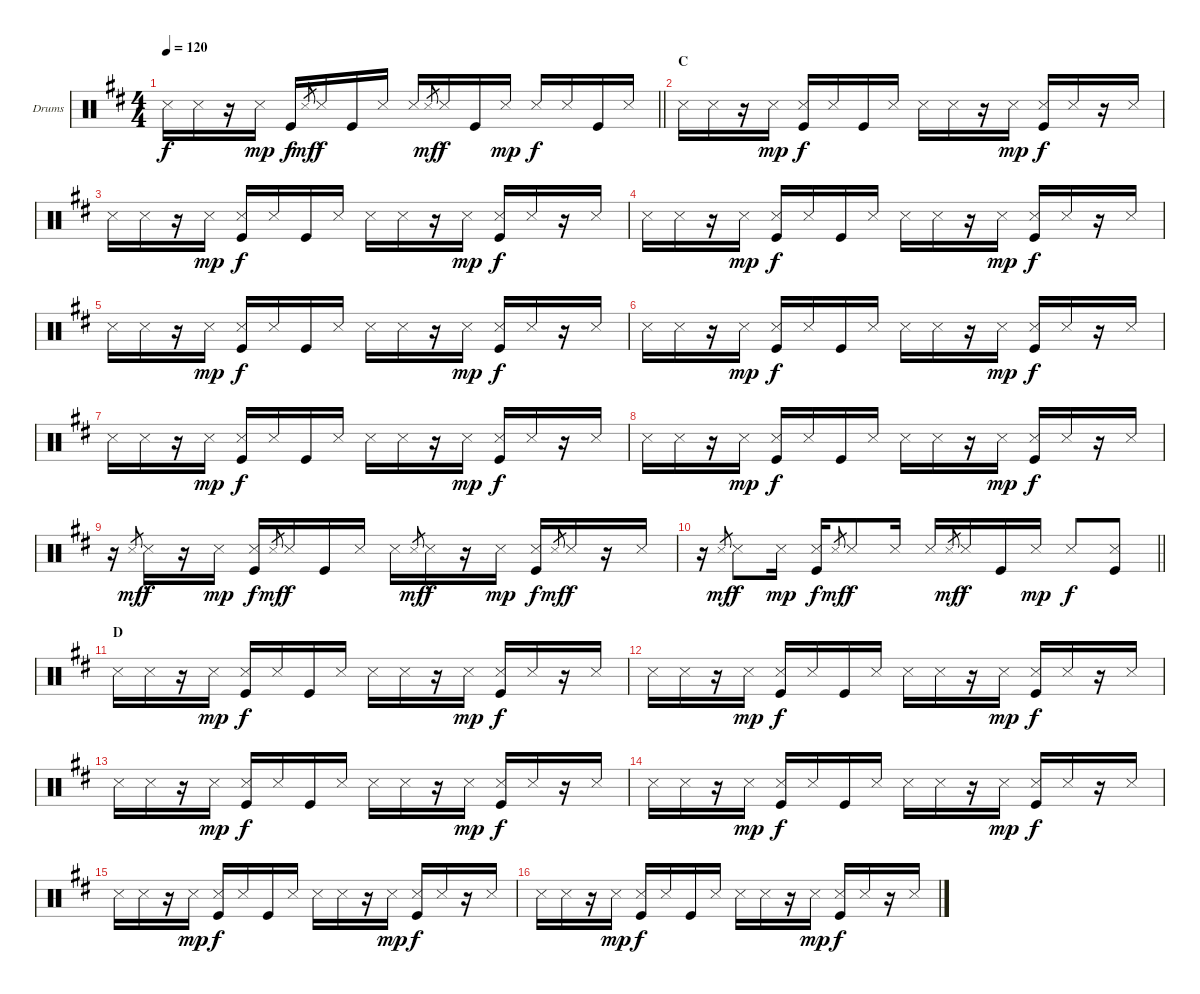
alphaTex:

\bracketExtendMode groupsimilarinstruments
\firstSystemTrackNameOrientation horizontal
\otherSystemsTrackNameOrientation horizontal
\track ("Drumkit" "Drums") {instrument percussion}
\staff {score}
\articulation defaults
\ts (4 4)
\tempo 120
\clef neutral
\barLineRight lightlight
\ks d "Snare (side stick) 3".16{dy f} "Snare (side stick) 3".16
r.16 "Snare (side stick) 3".16{dy mp} "Kick (hit)".16{dy f} "Snare (side stick) 3".8{gr dy mf} "Snare (side stick) 3".16{dy f} "Kick (hit)".16 "Snare (side stick) 3".16 "Snare (side stick) 3".16 "Snare (side stick) 3".8{gr dy mf} "Snare (side stick) 3".16{dy f} "Kick (hit)".16 "Snare (side stick) 3".16{dy mp} "Snare (side stick) 3".16{dy f} "Snare (side stick) 3".16 "Kick (hit)".16 "Snare (side stick) 3".16 |
\section ("" "C")
"Snare (side stick) 3".16 "Snare (side stick) 3".16 r.16 "Snare (side stick) 3".16{dy mp} ("Snare (side stick) 3" "Kick (hit)").16{dy f} "Snare (side stick) 3".16 "Kick (hit)".16 "Snare (side stick) 3".16 "Snare (side stick) 3".16 "Snare (side stick) 3".16 r.16 "Snare (side stick) 3".16{dy mp} ("Snare (side stick) 3" "Kick (hit)").16{dy f} "Snare (side stick) 3".16 r.16 "Snare (side stick) 3".16 |
"Snare (side stick) 3".16 "Snare (side stick) 3".16 r.16 "Snare (side stick) 3".16{dy mp} ("Snare (side stick) 3" "Kick (hit)").16{dy f} "Snare (side stick) 3".16 "Kick (hit)".16 "Snare (side stick) 3".16 "Snare (side stick) 3".16 "Snare (side stick) 3".16 r.16 "Snare (side stick) 3".16{dy mp} ("Snare (side stick) 3" "Kick (hit)").16{dy f} "Snare (side stick) 3".16 r.16 "Snare (side stick) 3".16 |
"Snare (side stick) 3".16 "Snare (side stick) 3".16 r.16 "Snare (side stick) 3".16{dy mp} ("Snare (side stick) 3" "Kick (hit)").16{dy f} "Snare (side stick) 3".16 "Kick (hit)".16 "Snare (side stick) 3".16 "Snare (side stick) 3".16 "Snare (side stick) 3".16 r.16 "Snare (side stick) 3".16{dy mp} ("Snare (side stick) 3" "Kick (hit)").16{dy f} "Snare (side stick) 3".16 r.16 "Snare (side stick) 3".16 |
"Snare (side stick) 3".16 "Snare (side stick) 3".16 r.16 "Snare (side stick) 3".16{dy mp} ("Snare (side stick) 3" "Kick (hit)").16{dy f} "Snare (side stick) 3".16 "Kick (hit)".16 "Snare (side stick) 3".16 "Snare (side stick) 3".16 "Snare (side stick) 3".16 r.16 "Snare (side stick) 3".16{dy mp} ("Snare (side stick) 3" "Kick (hit)").16{dy f} "Snare (side stick) 3".16 r.16 "Snare (side stick) 3".16 |
"Snare (side stick) 3".16 "Snare (side stick) 3".16 r.16 "Snare (side stick) 3".16{dy mp} ("Snare (side stick) 3" "Kick (hit)").16{dy f} "Snare (side stick) 3".16 "Kick (hit)".16 "Snare (side stick) 3".16 "Snare (side stick) 3".16 "Snare (side stick) 3".16 r.16 "Snare (side stick) 3".16{dy mp} ("Snare (side stick) 3" "Kick (hit)").16{dy f} "Snare (side stick) 3".16 r.16 "Snare (side stick) 3".16 |
"Snare (side stick) 3".16 "Snare (side stick) 3".16 r.16 "Snare (side stick) 3".16{dy mp} ("Snare (side stick) 3" "Kick (hit)").16{dy f} "Snare (side stick) 3".16 "Kick (hit)".16 "Snare (side stick) 3".16 "Snare (side stick) 3".16 "Snare (side stick) 3".16 r.16 "Snare (side stick) 3".16{dy mp} ("Snare (side stick) 3" "Kick (hit)").16{dy f} "Snare (side stick) 3".16 r.16 "Snare (side stick) 3".16 |
"Snare (side stick) 3".16 "Snare (side stick) 3".16 r.16 "Snare (side stick) 3".16{dy mp} ("Snare (side stick) 3" "Kick (hit)").16{dy f} "Snare (side stick) 3".16 "Kick (hit)".16 "Snare (side stick) 3".16 "Snare (side stick) 3".16 "Snare (side stick) 3".16 r.16 "Snare (side stick) 3".16{dy mp} ("Snare (side stick) 3" "Kick (hit)").16{dy f} "Snare (side stick) 3".16 r.16 "Snare (side stick) 3".16 |
r.16 "Snare (side stick) 3".8{gr dy mf} "Snare (side stick) 3".16{dy f} r.16 "Snare (side stick) 3".16{dy mp} ("Snare (side stick) 3" "Kick (hit)").16{dy f} "Snare (side stick) 3".8{gr dy mf} "Snare (side stick) 3".16{dy f} "Kick (hit)".16 "Snare (side stick) 3".16 "Snare (side stick) 3".16 "Snare (side stick) 3".8{gr dy mf} "Snare (side stick) 3".16{dy f} r.16 "Snare (side stick) 3".16{dy mp} ("Snare (side stick) 3" "Kick (hit)").16{dy f} "Snare (side stick) 3".8{gr dy mf} "Snare (side stick) 3".16{dy f} r.16 "Snare (side stick) 3".16 |
\barLineRight lightlight
r.16 "Snare (side stick) 3".8{gr dy mf} "Snare (side stick) 3".8{dy f} "Snare (side stick) 3".16{dy mp} ("Snare (side stick) 3" "Kick (hit)").16{dy f} "Snare (side stick) 3".8{gr dy mf} "Snare (side stick) 3".8{dy f} "Snare (side stick) 3".16 "Snare (side stick) 3".16 "Snare (side stick) 3".8{gr dy mf} "Snare (side stick) 3".16{dy f} "Kick (hit)".16 "Snare (side stick) 3".16{dy mp} "Snare (side stick) 3".8{dy f} ("Snare (side stick) 3" "Kick (hit)").8 |
\section ("" "D")
"Snare (side stick) 3".16 "Snare (side stick) 3".16 r.16 "Snare (side stick) 3".16{dy mp} ("Snare (side stick) 3" "Kick (hit)").16{dy f} "Snare (side stick) 3".16 "Kick (hit)".16 "Snare (side stick) 3".16 "Snare (side stick) 3".16 "Snare (side stick) 3".16 r.16 "Snare (side stick) 3".16{dy mp} ("Snare (side stick) 3" "Kick (hit)").16{dy f} "Snare (side stick) 3".16 r.16 "Snare (side stick) 3".16 |
"Snare (side stick) 3".16 "Snare (side stick) 3".16 r.16 "Snare (side stick) 3".16{dy mp} ("Snare (side stick) 3" "Kick (hit)").16{dy f} "Snare (side stick) 3".16 "Kick (hit)".16 "Snare (side stick) 3".16 "Snare (side stick) 3".16 "Snare (side stick) 3".16 r.16 "Snare (side stick) 3".16{dy mp} ("Snare (side stick) 3" "Kick (hit)").16{dy f} "Snare (side stick) 3".16 r.16 "Snare (side stick) 3".16 |
"Snare (side stick) 3".16 "Snare (side stick) 3".16 r.16 "Snare (side stick) 3".16{dy mp} ("Snare (side stick) 3" "Kick (hit)").16{dy f} "Snare (side stick) 3".16 "Kick (hit)".16 "Snare (side stick) 3".16 "Snare (side stick) 3".16 "Snare (side stick) 3".16 r.16 "Snare (side stick) 3".16{dy mp} ("Snare (side stick) 3" "Kick (hit)").16{dy f} "Snare (side stick) 3".16 r.16 "Snare (side stick) 3".16 |
"Snare (side stick) 3".16 "Snare (side stick) 3".16 r.16 "Snare (side stick) 3".16{dy mp} ("Snare (side stick) 3" "Kick (hit)").16{dy f} "Snare (side stick) 3".16 "Kick (hit)".16 "Snare (side stick) 3".16 "Snare (side stick) 3".16 "Snare (side stick) 3".16 r.16 "Snare (side stick) 3".16{dy mp} ("Snare (side stick) 3" "Kick (hit)").16{dy f} "Snare (side stick) 3".16 r.16 "Snare (side stick) 3".16 |
"Snare (side stick) 3".16 "Snare (side stick) 3".16 r.16 "Snare (side stick) 3".16{dy mp} ("Snare (side stick) 3" "Kick (hit)").16{dy f} "Snare (side stick) 3".16 "Kick (hit)".16 "Snare (side stick) 3".16 "Snare (side stick) 3".16 "Snare (side stick) 3".16 r.16 "Snare (side stick) 3".16{dy mp} ("Snare (side stick) 3" "Kick (hit)").16{dy f} "Snare (side stick) 3".16 r.16 "Snare (side stick) 3".16 |
"Snare (side stick) 3".16 "Snare (side stick) 3".16 r.16 "Snare (side stick) 3".16{dy mp} ("Snare (side stick) 3" "Kick (hit)").16{dy f} "Snare (side stick) 3".16 "Kick (hit)".16 "Snare (side stick) 3".16 "Snare (side stick) 3".16 "Snare (side stick) 3".16 r.16 "Snare (side stick) 3".16{dy mp} ("Snare (side stick) 3" "Kick (hit)").16{dy f} "Snare (side stick) 3".16 r.16 "Snare (side stick) 3".16
